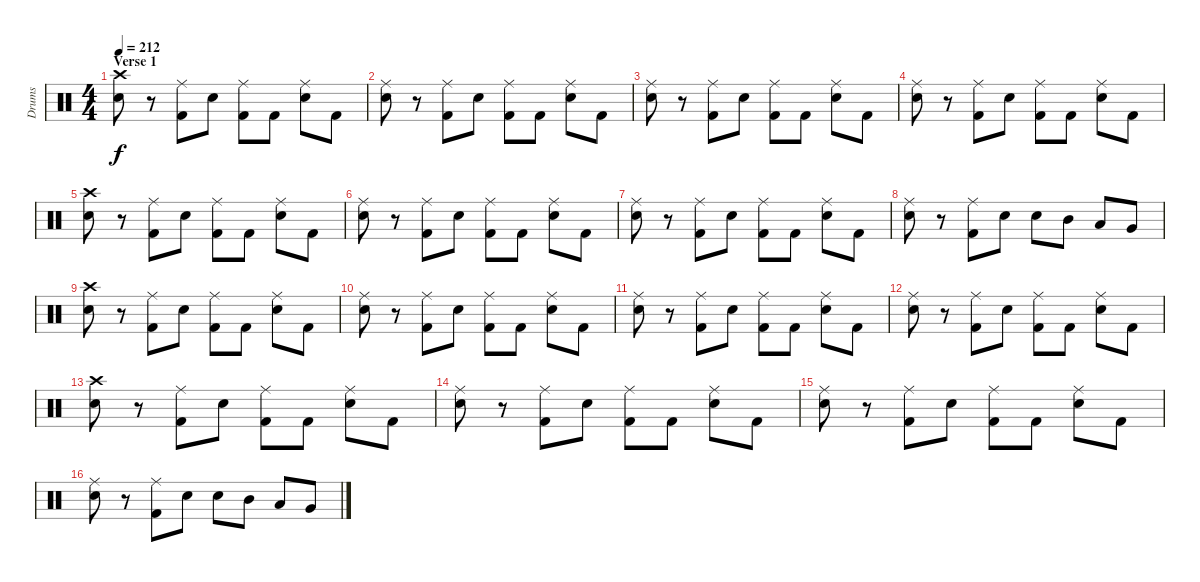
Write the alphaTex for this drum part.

\track ("Drums" "Drums") {instrument percussion}
\staff {score}
\articulation defaults
\ts (4 4)
\section ("" "Verse 1")
\tempo 212
\clef neutral
\ks c
("Crash high (hit)" "Snare (hit) 2").8{dy f} r.8 ("Ride (middle)" "Kick (hit) 2").8 "Snare (hit) 2".8 ("Ride (middle)" "Kick (hit) 2").8 "Kick (hit) 2".8 ("Ride (middle)" "Snare (hit) 2").8 "Kick (hit) 2".8 |
("Ride (middle)" "Snare (hit) 2").8 r.8 ("Ride (middle)" "Kick (hit) 2").8 "Snare (hit) 2".8 ("Ride (middle)" "Kick (hit) 2").8 "Kick (hit) 2".8 ("Ride (middle)" "Snare (hit) 2").8 "Kick (hit) 2".8 |
("Ride (middle)" "Snare (hit) 2").8 r.8 ("Ride (middle)" "Kick (hit) 2").8 "Snare (hit) 2".8 ("Ride (middle)" "Kick (hit) 2").8 "Kick (hit) 2".8 ("Ride (middle)" "Snare (hit) 2").8 "Kick (hit) 2".8 |
("Ride (middle)" "Snare (hit) 2").8 r.8 ("Ride (middle)" "Kick (hit) 2").8 "Snare (hit) 2".8 ("Ride (middle)" "Kick (hit) 2").8 "Kick (hit) 2".8 ("Ride (middle)" "Snare (hit) 2").8 "Kick (hit) 2".8 |
("Crash high (hit)" "Snare (hit) 2").8 r.8 ("Ride (middle)" "Kick (hit) 2").8 "Snare (hit) 2".8 ("Ride (middle)" "Kick (hit) 2").8 "Kick (hit) 2".8 ("Ride (middle)" "Snare (hit) 2").8 "Kick (hit) 2".8 |
("Ride (middle)" "Snare (hit) 2").8 r.8 ("Ride (middle)" "Kick (hit) 2").8 "Snare (hit) 2".8 ("Ride (middle)" "Kick (hit) 2").8 "Kick (hit) 2".8 ("Ride (middle)" "Snare (hit) 2").8 "Kick (hit) 2".8 |
("Ride (middle)" "Snare (hit) 2").8 r.8 ("Ride (middle)" "Kick (hit) 2").8 "Snare (hit) 2".8 ("Ride (middle)" "Kick (hit) 2").8 "Kick (hit) 2".8 ("Ride (middle)" "Snare (hit) 2").8 "Kick (hit) 2".8 |
("Ride (middle)" "Snare (hit) 2").8 r.8 ("Ride (middle)" "Kick (hit) 2").8 "Snare (hit) 2".8 "Snare (hit) 2".8 "Mid Tom (hit)".8 "Low Tom (hit)".8 "Very Low Tom (hit)".8 |
("Crash high (hit)" "Snare (hit) 2").8 r.8 ("Ride (middle)" "Kick (hit) 2").8 "Snare (hit) 2".8 ("Ride (middle)" "Kick (hit) 2").8 "Kick (hit) 2".8 ("Ride (middle)" "Snare (hit) 2").8 "Kick (hit) 2".8 |
("Ride (middle)" "Snare (hit) 2").8 r.8 ("Ride (middle)" "Kick (hit) 2").8 "Snare (hit) 2".8 ("Ride (middle)" "Kick (hit) 2").8 "Kick (hit) 2".8 ("Ride (middle)" "Snare (hit) 2").8 "Kick (hit) 2".8 |
("Ride (middle)" "Snare (hit) 2").8 r.8 ("Ride (middle)" "Kick (hit) 2").8 "Snare (hit) 2".8 ("Ride (middle)" "Kick (hit) 2").8 "Kick (hit) 2".8 ("Ride (middle)" "Snare (hit) 2").8 "Kick (hit) 2".8 |
("Ride (middle)" "Snare (hit) 2").8 r.8 ("Ride (middle)" "Kick (hit) 2").8 "Snare (hit) 2".8 ("Ride (middle)" "Kick (hit) 2").8 "Kick (hit) 2".8 ("Ride (middle)" "Snare (hit) 2").8 "Kick (hit) 2".8 |
("Crash high (hit)" "Snare (hit) 2").8 r.8 ("Ride (middle)" "Kick (hit) 2").8 "Snare (hit) 2".8 ("Ride (middle)" "Kick (hit) 2").8 "Kick (hit) 2".8 ("Ride (middle)" "Snare (hit) 2").8 "Kick (hit) 2".8 |
("Ride (middle)" "Snare (hit) 2").8 r.8 ("Ride (middle)" "Kick (hit) 2").8 "Snare (hit) 2".8 ("Ride (middle)" "Kick (hit) 2").8 "Kick (hit) 2".8 ("Ride (middle)" "Snare (hit) 2").8 "Kick (hit) 2".8 |
("Ride (middle)" "Snare (hit) 2").8 r.8 ("Ride (middle)" "Kick (hit) 2").8 "Snare (hit) 2".8 ("Ride (middle)" "Kick (hit) 2").8 "Kick (hit) 2".8 ("Ride (middle)" "Snare (hit) 2").8 "Kick (hit) 2".8 |
("Ride (middle)" "Snare (hit) 2").8 r.8 ("Ride (middle)" "Kick (hit) 2").8 "Snare (hit) 2".8 "Snare (hit) 2".8 "Mid Tom (hit)".8 "Low Tom (hit)".8 "Very Low Tom (hit)".8
